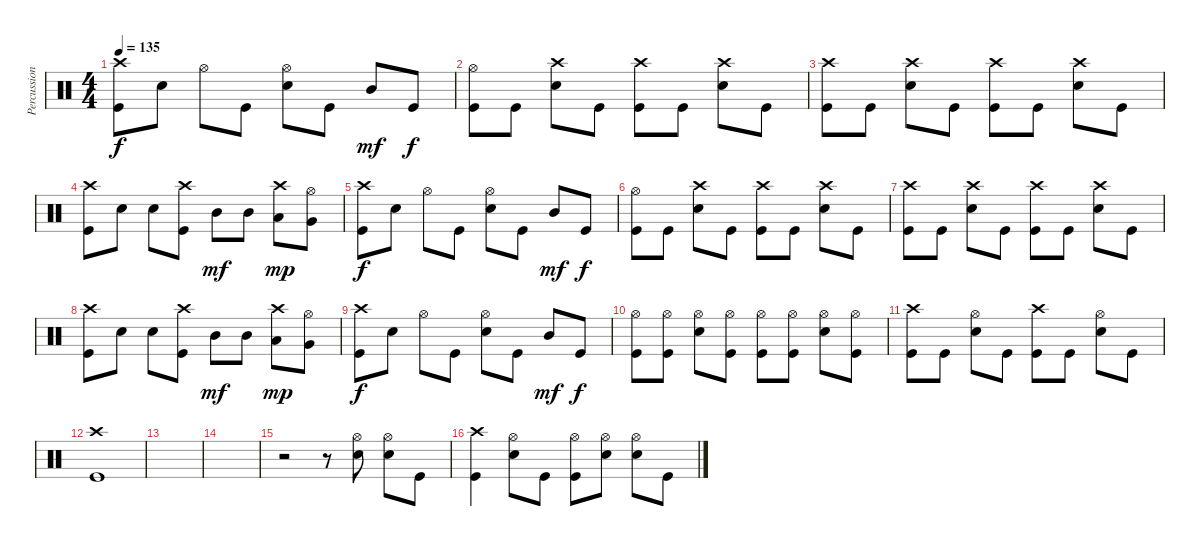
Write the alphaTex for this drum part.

\track ("Percussion" "Percussion") {instrument percussion}
\staff {score}
\articulation defaults
\ts (4 4)
\tempo 135
\clef neutral
\ks c
("Crash high (hit)" "Kick (hit)").8{dy f} "Electric Snare (hit)".8 "Hi-Hat (open)".8 "Kick (hit)".8 ("Hi-Hat (open)" "Electric Snare (hit)").8 "Kick (hit)".8 "Mid Tom (hit)".8{dy mf} "Kick (hit)".8{dy f} |
("Hi-Hat (open)" "Kick (hit)").8 "Kick (hit)".8 ("Crash high (hit)" "Electric Snare (hit)").8 "Kick (hit)".8 ("Crash high (hit)" "Kick (hit)").8 "Kick (hit)".8 ("Crash high (hit)" "Electric Snare (hit)").8 "Kick (hit)".8 |
("Crash high (hit)" "Kick (hit)").8 "Kick (hit)".8 ("Crash high (hit)" "Electric Snare (hit)").8 "Kick (hit)".8 ("Crash high (hit)" "Kick (hit)").8 "Kick (hit)".8 ("Crash high (hit)" "Electric Snare (hit)").8 "Kick (hit)".8 |
("Crash high (hit)" "Kick (hit)").8 "Electric Snare (hit)".8 "Electric Snare (hit)".8 ("Crash high (hit)" "Kick (hit)").8 "Mid Tom (hit)".8{dy mf} "Mid Tom (hit)".8 ("Crash high (hit)" "Low Tom (hit)").8{dy mp} ("Hi-Hat (open)" "Very Low Tom (hit)").8 |
("Crash high (hit)" "Kick (hit)").8{dy f} "Electric Snare (hit)".8 "Hi-Hat (open)".8 "Kick (hit)".8 ("Hi-Hat (open)" "Electric Snare (hit)").8 "Kick (hit)".8 "Mid Tom (hit)".8{dy mf} "Kick (hit)".8{dy f} |
("Hi-Hat (open)" "Kick (hit)").8 "Kick (hit)".8 ("Crash high (hit)" "Electric Snare (hit)").8 "Kick (hit)".8 ("Crash high (hit)" "Kick (hit)").8 "Kick (hit)".8 ("Crash high (hit)" "Electric Snare (hit)").8 "Kick (hit)".8 |
("Crash high (hit)" "Kick (hit)").8 "Kick (hit)".8 ("Crash high (hit)" "Electric Snare (hit)").8 "Kick (hit)".8 ("Crash high (hit)" "Kick (hit)").8 "Kick (hit)".8 ("Crash high (hit)" "Electric Snare (hit)").8 "Kick (hit)".8 |
("Crash high (hit)" "Kick (hit)").8 "Electric Snare (hit)".8 "Electric Snare (hit)".8 ("Crash high (hit)" "Kick (hit)").8 "Mid Tom (hit)".8{dy mf} "Mid Tom (hit)".8 ("Crash high (hit)" "Low Tom (hit)").8{dy mp} ("Hi-Hat (open)" "Very Low Tom (hit)").8 |
("Crash high (hit)" "Kick (hit)").8{dy f} "Electric Snare (hit)".8 "Hi-Hat (open)".8 "Kick (hit)".8 ("Hi-Hat (open)" "Electric Snare (hit)").8 "Kick (hit)".8 "Mid Tom (hit)".8{dy mf} "Kick (hit)".8{dy f} |
("Hi-Hat (open)" "Kick (hit)").8 ("Hi-Hat (open)" "Kick (hit)").8 ("Hi-Hat (open)" "Electric Snare (hit)").8 ("Hi-Hat (open)" "Kick (hit)").8 ("Hi-Hat (open)" "Kick (hit)").8 ("Hi-Hat (open)" "Kick (hit)").8 ("Hi-Hat (open)" "Electric Snare (hit)").8 ("Hi-Hat (open)" "Kick (hit)").8 |
("Crash high (hit)" "Kick (hit)").8 "Kick (hit)".8 ("Hi-Hat (open)" "Electric Snare (hit)").8 "Kick (hit)".8 ("Crash high (hit)" "Kick (hit)").8 "Kick (hit)".8 ("Hi-Hat (open)" "Electric Snare (hit)").8 "Kick (hit)".8 |
("Crash high (hit)" "Kick (hit)").1 |
|
|
r.2 r.8 ("Hi-Hat (open)" "Electric Snare (hit)").8 ("Hi-Hat (open)" "Electric Snare (hit)").8 "Kick (hit)".8 |
("Crash high (hit)" "Kick (hit)").4 ("Hi-Hat (open)" "Electric Snare (hit)").8 "Kick (hit)".8 ("Hi-Hat (open)" "Kick (hit)").8 ("Hi-Hat (open)" "Electric Snare (hit)").8 ("Hi-Hat (open)" "Electric Snare (hit)").8 "Kick (hit)".8
